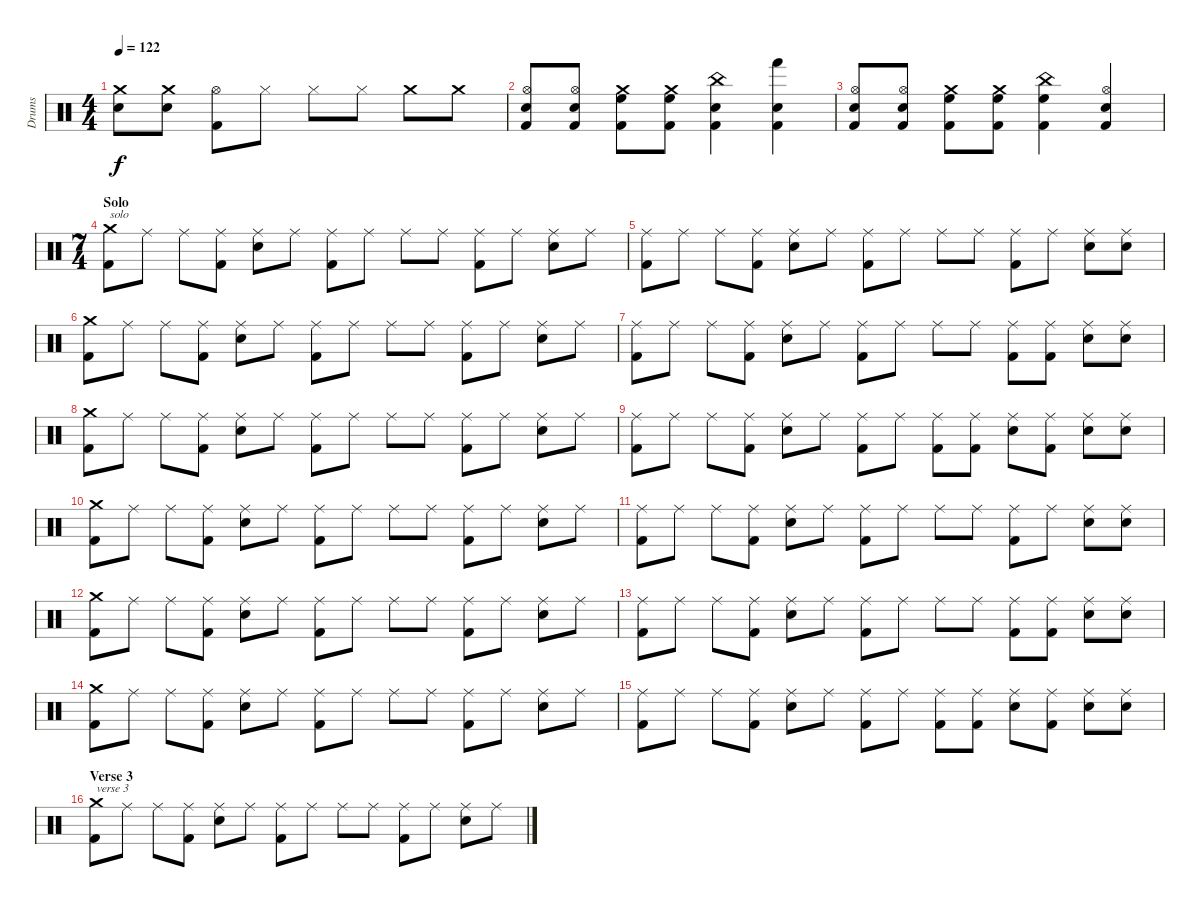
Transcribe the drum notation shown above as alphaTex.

\track ("Drums" "Drums") {instrument percussion}
\staff {score}
\articulation defaults
\ts (4 4)
\tempo 122
\clef neutral
\ks c
("Crash medium (hit)" "Snare (hit) 2").8{dy f} ("Crash medium (hit)" "Snare (hit) 2").8 ("Hi-Hat (open)" "Kick (hit) 2").8 "Hi-Hat (closed)".8 "Hi-Hat (closed)".8 "Hi-Hat (closed)".8 "Crash medium (hit)".8 "Crash medium (hit)".8 |
("Hi-Hat (open)" "Snare (hit) 2" "Kick (hit) 2").8 ("Hi-Hat (open)" "Snare (hit) 2" "Kick (hit) 2").8 ("Crash medium (hit)" "High Floor Tom (hit)" "Kick (hit) 2").8 ("Crash medium (hit)" "High Floor Tom (hit)" "Kick (hit) 2").8 ("China (hit)" "Snare (hit) 2" "Kick (hit) 2").4 ("Hand (hit)" "Snare (hit) 2" "Kick (hit) 2").4 |
("Hi-Hat (open)" "Snare (hit) 2" "Kick (hit) 2").8 ("Hi-Hat (open)" "Snare (hit) 2" "Kick (hit) 2").8 ("Crash medium (hit)" "High Floor Tom (hit)" "Kick (hit) 2").8 ("Crash medium (hit)" "High Floor Tom (hit)" "Kick (hit) 2").8 ("China (hit)" "High Floor Tom (hit)" "Kick (hit) 2").4 ("Hi-Hat (open)" "Snare (hit) 2" "Kick (hit) 2").4 |
\ts (7 4)
\section ("" "Solo")
("Crash medium (hit)" "Kick (hit) 2").8{txt "solo"} "Ride (middle)".8 "Ride (middle)".8 ("Ride (middle)" "Kick (hit) 2").8 ("Ride (middle)" "Snare (hit) 2").8 "Ride (middle)".8 ("Ride (middle)" "Kick (hit) 2").8 "Ride (middle)".8 "Ride (middle)".8 "Ride (middle)".8 ("Ride (middle)" "Kick (hit) 2").8 "Ride (middle)".8 ("Ride (middle)" "Snare (hit) 2").8 "Ride (middle)".8 |
("Ride (middle)" "Kick (hit) 2").8 "Ride (middle)".8 "Ride (middle)".8 ("Ride (middle)" "Kick (hit) 2").8 ("Ride (middle)" "Snare (hit) 2").8 "Ride (middle)".8 ("Ride (middle)" "Kick (hit) 2").8 "Ride (middle)".8 "Ride (middle)".8 "Ride (middle)".8 ("Ride (middle)" "Kick (hit) 2").8 "Ride (middle)".8 ("Ride (middle)" "Snare (hit) 2").8 ("Ride (middle)" "Snare (hit) 2").8 |
("Crash medium (hit)" "Kick (hit) 2").8 "Ride (middle)".8 "Ride (middle)".8 ("Ride (middle)" "Kick (hit) 2").8 ("Ride (middle)" "Snare (hit) 2").8 "Ride (middle)".8 ("Ride (middle)" "Kick (hit) 2").8 "Ride (middle)".8 "Ride (middle)".8 "Ride (middle)".8 ("Ride (middle)" "Kick (hit) 2").8 "Ride (middle)".8 ("Ride (middle)" "Snare (hit) 2").8 "Ride (middle)".8 |
("Ride (middle)" "Kick (hit) 2").8 "Ride (middle)".8 "Ride (middle)".8 ("Ride (middle)" "Kick (hit) 2").8 ("Ride (middle)" "Snare (hit) 2").8 "Ride (middle)".8 ("Ride (middle)" "Kick (hit) 2").8 "Ride (middle)".8 "Ride (middle)".8 "Ride (middle)".8 ("Ride (middle)" "Kick (hit) 2").8 ("Ride (middle)" "Kick (hit) 2").8 ("Ride (middle)" "Snare (hit) 2").8 ("Ride (middle)" "Snare (hit) 2").8 |
("Crash medium (hit)" "Kick (hit) 2").8 "Ride (middle)".8 "Ride (middle)".8 ("Ride (middle)" "Kick (hit) 2").8 ("Ride (middle)" "Snare (hit) 2").8 "Ride (middle)".8 ("Ride (middle)" "Kick (hit) 2").8 "Ride (middle)".8 "Ride (middle)".8 "Ride (middle)".8 ("Ride (middle)" "Kick (hit) 2").8 "Ride (middle)".8 ("Ride (middle)" "Snare (hit) 2").8 "Ride (middle)".8 |
("Ride (middle)" "Kick (hit) 2").8 "Ride (middle)".8 "Ride (middle)".8 ("Ride (middle)" "Kick (hit) 2").8 ("Ride (middle)" "Snare (hit) 2").8 "Ride (middle)".8 ("Ride (middle)" "Kick (hit) 2").8 "Ride (middle)".8 ("Ride (middle)" "Kick (hit) 2").8 ("Ride (middle)" "Kick (hit) 2").8 ("Ride (middle)" "Snare (hit) 2").8 ("Ride (middle)" "Kick (hit) 2").8 ("Ride (middle)" "Snare (hit) 2").8 ("Ride (middle)" "Snare (hit) 2").8 |
("Crash medium (hit)" "Kick (hit) 2").8 "Ride (middle)".8 "Ride (middle)".8 ("Ride (middle)" "Kick (hit) 2").8 ("Ride (middle)" "Snare (hit) 2").8 "Ride (middle)".8 ("Ride (middle)" "Kick (hit) 2").8 "Ride (middle)".8 "Ride (middle)".8 "Ride (middle)".8 ("Ride (middle)" "Kick (hit) 2").8 "Ride (middle)".8 ("Ride (middle)" "Snare (hit) 2").8 "Ride (middle)".8 |
("Ride (middle)" "Kick (hit) 2").8 "Ride (middle)".8 "Ride (middle)".8 ("Ride (middle)" "Kick (hit) 2").8 ("Ride (middle)" "Snare (hit) 2").8 "Ride (middle)".8 ("Ride (middle)" "Kick (hit) 2").8 "Ride (middle)".8 "Ride (middle)".8 "Ride (middle)".8 ("Ride (middle)" "Kick (hit) 2").8 "Ride (middle)".8 ("Ride (middle)" "Snare (hit) 2").8 ("Ride (middle)" "Snare (hit) 2").8 |
("Crash medium (hit)" "Kick (hit) 2").8 "Ride (middle)".8 "Ride (middle)".8 ("Ride (middle)" "Kick (hit) 2").8 ("Ride (middle)" "Snare (hit) 2").8 "Ride (middle)".8 ("Ride (middle)" "Kick (hit) 2").8 "Ride (middle)".8 "Ride (middle)".8 "Ride (middle)".8 ("Ride (middle)" "Kick (hit) 2").8 "Ride (middle)".8 ("Ride (middle)" "Snare (hit) 2").8 "Ride (middle)".8 |
("Ride (middle)" "Kick (hit) 2").8 "Ride (middle)".8 "Ride (middle)".8 ("Ride (middle)" "Kick (hit) 2").8 ("Ride (middle)" "Snare (hit) 2").8 "Ride (middle)".8 ("Ride (middle)" "Kick (hit) 2").8 "Ride (middle)".8 "Ride (middle)".8 "Ride (middle)".8 ("Ride (middle)" "Kick (hit) 2").8 ("Ride (middle)" "Kick (hit) 2").8 ("Ride (middle)" "Snare (hit) 2").8 ("Ride (middle)" "Snare (hit) 2").8 |
("Crash medium (hit)" "Kick (hit) 2").8 "Ride (middle)".8 "Ride (middle)".8 ("Ride (middle)" "Kick (hit) 2").8 ("Ride (middle)" "Snare (hit) 2").8 "Ride (middle)".8 ("Ride (middle)" "Kick (hit) 2").8 "Ride (middle)".8 "Ride (middle)".8 "Ride (middle)".8 ("Ride (middle)" "Kick (hit) 2").8 "Ride (middle)".8 ("Ride (middle)" "Snare (hit) 2").8 "Ride (middle)".8 |
("Ride (middle)" "Kick (hit) 2").8 "Ride (middle)".8 "Ride (middle)".8 ("Ride (middle)" "Kick (hit) 2").8 ("Ride (middle)" "Snare (hit) 2").8 "Ride (middle)".8 ("Ride (middle)" "Kick (hit) 2").8 "Ride (middle)".8 ("Ride (middle)" "Kick (hit) 2").8 ("Ride (middle)" "Kick (hit) 2").8 ("Ride (middle)" "Snare (hit) 2").8 ("Ride (middle)" "Kick (hit) 2").8 ("Ride (middle)" "Snare (hit) 2").8 ("Ride (middle)" "Snare (hit) 2").8 |
\section ("" "Verse 3")
("Crash medium (hit)" "Kick (hit) 2").8{txt "verse 3"} "Ride (middle)".8 "Ride (middle)".8 ("Ride (middle)" "Kick (hit) 2").8 ("Ride (middle)" "Snare (hit) 2").8 "Ride (middle)".8 ("Ride (middle)" "Kick (hit) 2").8 "Ride (middle)".8 "Ride (middle)".8 "Ride (middle)".8 ("Ride (middle)" "Kick (hit) 2").8 "Ride (middle)".8 ("Ride (middle)" "Snare (hit) 2").8 "Ride (middle)".8
